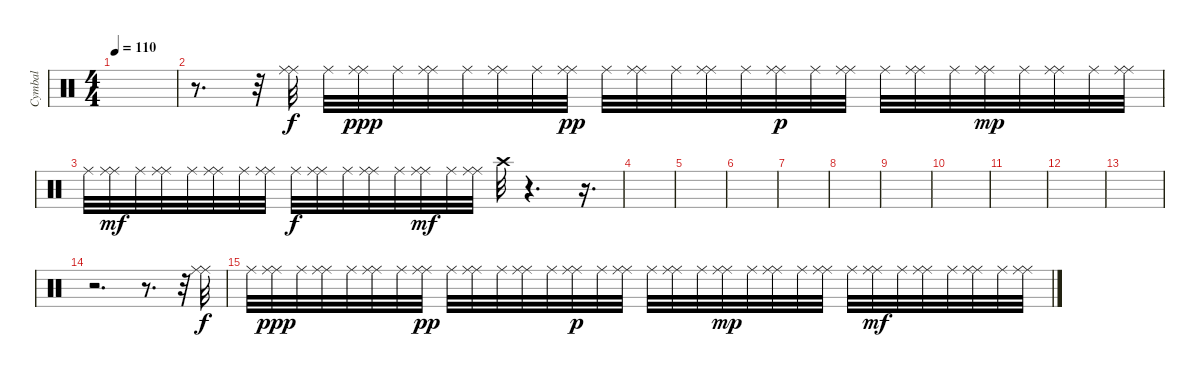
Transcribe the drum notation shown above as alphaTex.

\track ("Cymbal" "Cymbal") {instrument percussion}
\staff {score}
\articulation defaults
\ts (4 4)
\tempo 110
\clef neutral
\ks c
|
r.8{d} r.32 ("Ride (middle)" "Ride (middle)").32{dy f} "Ride (middle)".32 ("Ride (middle)" "Ride (middle)").32{dy ppp} "Ride (middle)".32 ("Ride (middle)" "Ride (middle)").32 "Ride (middle)".32 ("Ride (middle)" "Ride (middle)").32 "Ride (middle)".32 ("Ride (middle)" "Ride (middle)").32{dy pp} "Ride (middle)".32 ("Ride (middle)" "Ride (middle)").32 "Ride (middle)".32 ("Ride (middle)" "Ride (middle)").32 "Ride (middle)".32 ("Ride (middle)" "Ride (middle)").32{dy p} "Ride (middle)".32 ("Ride (middle)" "Ride (middle)").32 "Ride (middle)".32 ("Ride (middle)" "Ride (middle)").32 "Ride (middle)".32 ("Ride (middle)" "Ride (middle)").32{dy mp} "Ride (middle)".32 ("Ride (middle)" "Ride (middle)").32 "Ride (middle)".32 ("Ride (middle)" "Ride (middle)").32 |
"Ride (middle)".32 ("Ride (middle)" "Ride (middle)").32{dy mf} "Ride (middle)".32 ("Ride (middle)" "Ride (middle)").32 "Ride (middle)".32 ("Ride (middle)" "Ride (middle)").32 "Ride (middle)".32 ("Ride (middle)" "Ride (middle)").32 "Ride (middle)".32{dy f} ("Ride (middle)" "Ride (middle)").32 "Ride (middle)".32 ("Ride (middle)" "Ride (middle)").32 "Ride (middle)".32 ("Ride (middle)" "Ride (middle)").32{dy mf} "Ride (middle)".32 ("Ride (middle)" "Ride (middle)").32 "Crash high (hit)".32 r.4{d} r.16{d} |
|
|
|
|
|
|
|
|
|
|
r.2{d} r.8{d} r.32 ("Ride (middle)" "Ride (middle)").32{dy f} |
"Ride (middle)".32 ("Ride (middle)" "Ride (middle)").32{dy ppp} "Ride (middle)".32 ("Ride (middle)" "Ride (middle)").32 "Ride (middle)".32 ("Ride (middle)" "Ride (middle)").32 "Ride (middle)".32 ("Ride (middle)" "Ride (middle)").32{dy pp} "Ride (middle)".32 ("Ride (middle)" "Ride (middle)").32 "Ride (middle)".32 ("Ride (middle)" "Ride (middle)").32 "Ride (middle)".32 ("Ride (middle)" "Ride (middle)").32{dy p} "Ride (middle)".32 ("Ride (middle)" "Ride (middle)").32 "Ride (middle)".32 ("Ride (middle)" "Ride (middle)").32 "Ride (middle)".32 ("Ride (middle)" "Ride (middle)").32{dy mp} "Ride (middle)".32 ("Ride (middle)" "Ride (middle)").32 "Ride (middle)".32 ("Ride (middle)" "Ride (middle)").32 "Ride (middle)".32 ("Ride (middle)" "Ride (middle)").32{dy mf} "Ride (middle)".32 ("Ride (middle)" "Ride (middle)").32 "Ride (middle)".32 ("Ride (middle)" "Ride (middle)").32 "Ride (middle)".32 ("Ride (middle)" "Ride (middle)").32
